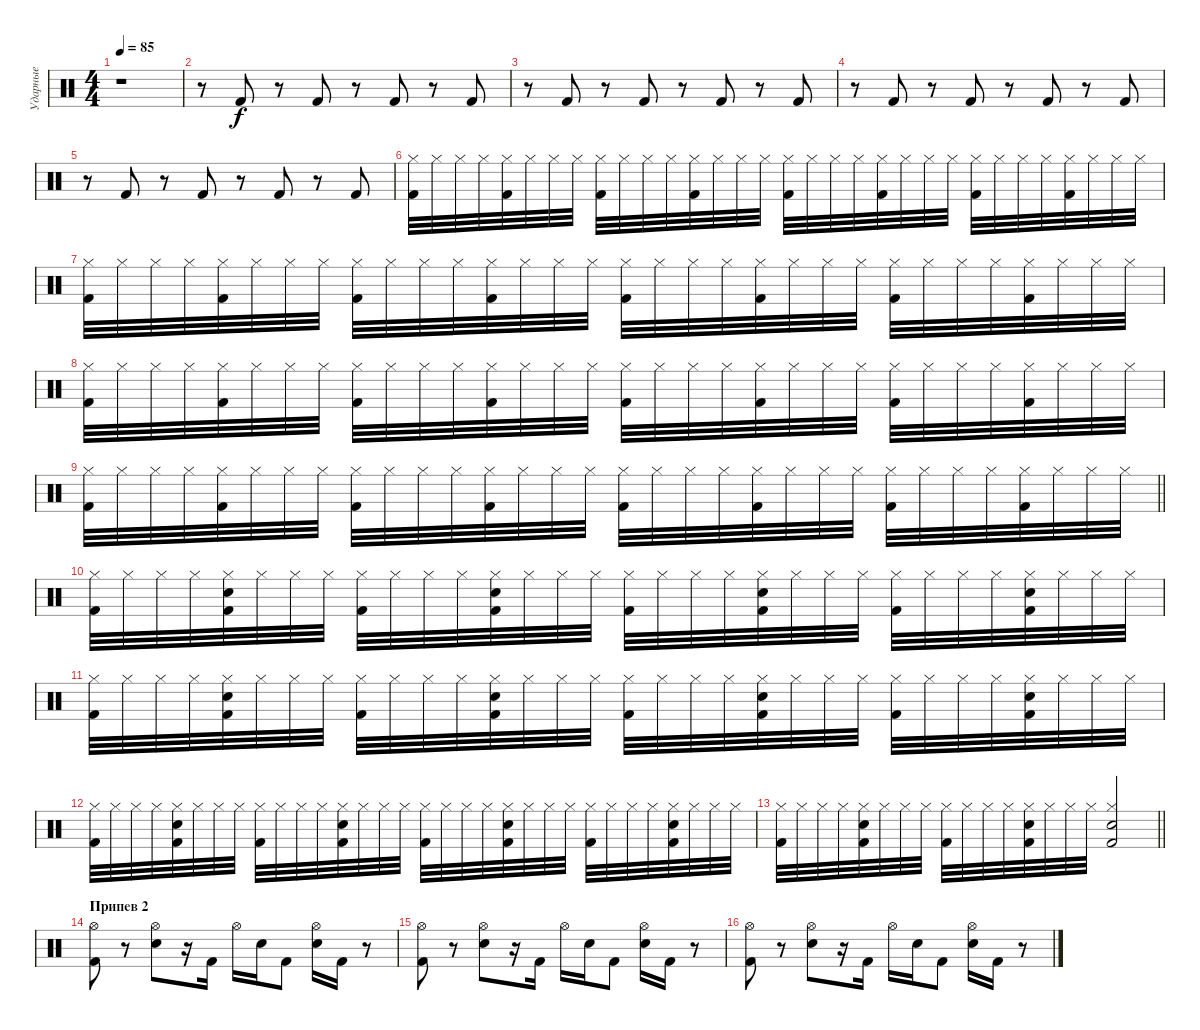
\track ("Ударные" "Ударные") {instrument percussion}
\staff {score}
\articulation defaults
\ts (4 4)
\tempo 85
\clef neutral
\ks c
r.1{dy f} |
r.8 "Kick (hit) 2".8 r.8 "Kick (hit) 2".8 r.8 "Kick (hit) 2".8 r.8 "Kick (hit) 2".8 |
r.8 "Kick (hit) 2".8 r.8 "Kick (hit) 2".8 r.8 "Kick (hit) 2".8 r.8 "Kick (hit) 2".8 |
r.8 "Kick (hit) 2".8 r.8 "Kick (hit) 2".8 r.8 "Kick (hit) 2".8 r.8 "Kick (hit) 2".8 |
r.8 "Kick (hit) 2".8 r.8 "Kick (hit) 2".8 r.8 "Kick (hit) 2".8 r.8 "Kick (hit) 2".8 |
("Hi-Hat (closed)" "Kick (hit) 2").32 "Hi-Hat (closed)".32 "Hi-Hat (closed)".32 "Hi-Hat (closed)".32 ("Hi-Hat (closed)" "Kick (hit) 2").32 "Hi-Hat (closed)".32 "Hi-Hat (closed)".32 "Hi-Hat (closed)".32 ("Hi-Hat (closed)" "Kick (hit) 2").32 "Hi-Hat (closed)".32 "Hi-Hat (closed)".32 "Hi-Hat (closed)".32 ("Hi-Hat (closed)" "Kick (hit) 2").32 "Hi-Hat (closed)".32 "Hi-Hat (closed)".32 "Hi-Hat (closed)".32 ("Hi-Hat (closed)" "Kick (hit) 2").32 "Hi-Hat (closed)".32 "Hi-Hat (closed)".32 "Hi-Hat (closed)".32 ("Hi-Hat (closed)" "Kick (hit) 2").32 "Hi-Hat (closed)".32 "Hi-Hat (closed)".32 "Hi-Hat (closed)".32 ("Hi-Hat (closed)" "Kick (hit) 2").32 "Hi-Hat (closed)".32 "Hi-Hat (closed)".32 "Hi-Hat (closed)".32 ("Hi-Hat (closed)" "Kick (hit) 2").32 "Hi-Hat (closed)".32 "Hi-Hat (closed)".32 "Hi-Hat (closed)".32 |
("Hi-Hat (closed)" "Kick (hit) 2").32 "Hi-Hat (closed)".32 "Hi-Hat (closed)".32 "Hi-Hat (closed)".32 ("Hi-Hat (closed)" "Kick (hit) 2").32 "Hi-Hat (closed)".32 "Hi-Hat (closed)".32 "Hi-Hat (closed)".32 ("Hi-Hat (closed)" "Kick (hit) 2").32 "Hi-Hat (closed)".32 "Hi-Hat (closed)".32 "Hi-Hat (closed)".32 ("Hi-Hat (closed)" "Kick (hit) 2").32 "Hi-Hat (closed)".32 "Hi-Hat (closed)".32 "Hi-Hat (closed)".32 ("Hi-Hat (closed)" "Kick (hit) 2").32 "Hi-Hat (closed)".32 "Hi-Hat (closed)".32 "Hi-Hat (closed)".32 ("Hi-Hat (closed)" "Kick (hit) 2").32 "Hi-Hat (closed)".32 "Hi-Hat (closed)".32 "Hi-Hat (closed)".32 ("Hi-Hat (closed)" "Kick (hit) 2").32 "Hi-Hat (closed)".32 "Hi-Hat (closed)".32 "Hi-Hat (closed)".32 ("Hi-Hat (closed)" "Kick (hit) 2").32 "Hi-Hat (closed)".32 "Hi-Hat (closed)".32 "Hi-Hat (closed)".32 |
("Hi-Hat (closed)" "Kick (hit) 2").32 "Hi-Hat (closed)".32 "Hi-Hat (closed)".32 "Hi-Hat (closed)".32 ("Hi-Hat (closed)" "Kick (hit) 2").32 "Hi-Hat (closed)".32 "Hi-Hat (closed)".32 "Hi-Hat (closed)".32 ("Hi-Hat (closed)" "Kick (hit) 2").32 "Hi-Hat (closed)".32 "Hi-Hat (closed)".32 "Hi-Hat (closed)".32 ("Hi-Hat (closed)" "Kick (hit) 2").32 "Hi-Hat (closed)".32 "Hi-Hat (closed)".32 "Hi-Hat (closed)".32 ("Hi-Hat (closed)" "Kick (hit) 2").32 "Hi-Hat (closed)".32 "Hi-Hat (closed)".32 "Hi-Hat (closed)".32 ("Hi-Hat (closed)" "Kick (hit) 2").32 "Hi-Hat (closed)".32 "Hi-Hat (closed)".32 "Hi-Hat (closed)".32 ("Hi-Hat (closed)" "Kick (hit) 2").32 "Hi-Hat (closed)".32 "Hi-Hat (closed)".32 "Hi-Hat (closed)".32 ("Hi-Hat (closed)" "Kick (hit) 2").32 "Hi-Hat (closed)".32 "Hi-Hat (closed)".32 "Hi-Hat (closed)".32 |
\barLineRight lightlight
("Hi-Hat (closed)" "Kick (hit) 2").32 "Hi-Hat (closed)".32 "Hi-Hat (closed)".32 "Hi-Hat (closed)".32 ("Hi-Hat (closed)" "Kick (hit) 2").32 "Hi-Hat (closed)".32 "Hi-Hat (closed)".32 "Hi-Hat (closed)".32 ("Hi-Hat (closed)" "Kick (hit) 2").32 "Hi-Hat (closed)".32 "Hi-Hat (closed)".32 "Hi-Hat (closed)".32 ("Hi-Hat (closed)" "Kick (hit) 2").32 "Hi-Hat (closed)".32 "Hi-Hat (closed)".32 "Hi-Hat (closed)".32 ("Hi-Hat (closed)" "Kick (hit) 2").32 "Hi-Hat (closed)".32 "Hi-Hat (closed)".32 "Hi-Hat (closed)".32 ("Hi-Hat (closed)" "Kick (hit) 2").32 "Hi-Hat (closed)".32 "Hi-Hat (closed)".32 "Hi-Hat (closed)".32 ("Hi-Hat (closed)" "Kick (hit) 2").32 "Hi-Hat (closed)".32 "Hi-Hat (closed)".32 "Hi-Hat (closed)".32 ("Hi-Hat (closed)" "Kick (hit) 2").32 "Hi-Hat (closed)".32 "Hi-Hat (closed)".32 "Hi-Hat (closed)".32 |
("Hi-Hat (closed)" "Kick (hit) 2").32 "Hi-Hat (closed)".32 "Hi-Hat (closed)".32 "Hi-Hat (closed)".32 ("Hi-Hat (closed)" "Kick (hit) 2" "Electric Snare (hit)").32 "Hi-Hat (closed)".32 "Hi-Hat (closed)".32 "Hi-Hat (closed)".32 ("Hi-Hat (closed)" "Kick (hit) 2").32 "Hi-Hat (closed)".32 "Hi-Hat (closed)".32 "Hi-Hat (closed)".32 ("Hi-Hat (closed)" "Kick (hit) 2" "Electric Snare (hit)").32 "Hi-Hat (closed)".32 "Hi-Hat (closed)".32 "Hi-Hat (closed)".32 ("Hi-Hat (closed)" "Kick (hit) 2").32 "Hi-Hat (closed)".32 "Hi-Hat (closed)".32 "Hi-Hat (closed)".32 ("Hi-Hat (closed)" "Kick (hit) 2" "Electric Snare (hit)").32 "Hi-Hat (closed)".32 "Hi-Hat (closed)".32 "Hi-Hat (closed)".32 ("Hi-Hat (closed)" "Kick (hit) 2").32 "Hi-Hat (closed)".32 "Hi-Hat (closed)".32 "Hi-Hat (closed)".32 ("Hi-Hat (closed)" "Kick (hit) 2" "Electric Snare (hit)").32 "Hi-Hat (closed)".32 "Hi-Hat (closed)".32 "Hi-Hat (closed)".32 |
("Hi-Hat (closed)" "Kick (hit) 2").32 "Hi-Hat (closed)".32 "Hi-Hat (closed)".32 "Hi-Hat (closed)".32 ("Hi-Hat (closed)" "Kick (hit) 2" "Electric Snare (hit)").32 "Hi-Hat (closed)".32 "Hi-Hat (closed)".32 "Hi-Hat (closed)".32 ("Hi-Hat (closed)" "Kick (hit) 2").32 "Hi-Hat (closed)".32 "Hi-Hat (closed)".32 "Hi-Hat (closed)".32 ("Hi-Hat (closed)" "Kick (hit) 2" "Electric Snare (hit)").32 "Hi-Hat (closed)".32 "Hi-Hat (closed)".32 "Hi-Hat (closed)".32 ("Hi-Hat (closed)" "Kick (hit) 2").32 "Hi-Hat (closed)".32 "Hi-Hat (closed)".32 "Hi-Hat (closed)".32 ("Hi-Hat (closed)" "Kick (hit) 2" "Electric Snare (hit)").32 "Hi-Hat (closed)".32 "Hi-Hat (closed)".32 "Hi-Hat (closed)".32 ("Hi-Hat (closed)" "Kick (hit) 2").32 "Hi-Hat (closed)".32 "Hi-Hat (closed)".32 "Hi-Hat (closed)".32 ("Hi-Hat (closed)" "Kick (hit) 2" "Electric Snare (hit)").32 "Hi-Hat (closed)".32 "Hi-Hat (closed)".32 "Hi-Hat (closed)".32 |
("Hi-Hat (closed)" "Kick (hit) 2").32 "Hi-Hat (closed)".32 "Hi-Hat (closed)".32 "Hi-Hat (closed)".32 ("Hi-Hat (closed)" "Kick (hit) 2" "Electric Snare (hit)").32 "Hi-Hat (closed)".32 "Hi-Hat (closed)".32 "Hi-Hat (closed)".32 ("Hi-Hat (closed)" "Kick (hit) 2").32 "Hi-Hat (closed)".32 "Hi-Hat (closed)".32 "Hi-Hat (closed)".32 ("Hi-Hat (closed)" "Kick (hit) 2" "Electric Snare (hit)").32 "Hi-Hat (closed)".32 "Hi-Hat (closed)".32 "Hi-Hat (closed)".32 ("Hi-Hat (closed)" "Kick (hit) 2").32 "Hi-Hat (closed)".32 "Hi-Hat (closed)".32 "Hi-Hat (closed)".32 ("Hi-Hat (closed)" "Kick (hit) 2" "Electric Snare (hit)").32 "Hi-Hat (closed)".32 "Hi-Hat (closed)".32 "Hi-Hat (closed)".32 ("Hi-Hat (closed)" "Kick (hit) 2").32 "Hi-Hat (closed)".32 "Hi-Hat (closed)".32 "Hi-Hat (closed)".32 ("Hi-Hat (closed)" "Kick (hit) 2" "Electric Snare (hit)").32 "Hi-Hat (closed)".32 "Hi-Hat (closed)".32 "Hi-Hat (closed)".32 |
\barLineRight lightlight
("Hi-Hat (closed)" "Kick (hit) 2").32 "Hi-Hat (closed)".32 "Hi-Hat (closed)".32 "Hi-Hat (closed)".32 ("Hi-Hat (closed)" "Kick (hit) 2" "Electric Snare (hit)").32 "Hi-Hat (closed)".32 "Hi-Hat (closed)".32 "Hi-Hat (closed)".32 ("Hi-Hat (closed)" "Kick (hit) 2").32 "Hi-Hat (closed)".32 "Hi-Hat (closed)".32 "Hi-Hat (closed)".32 ("Hi-Hat (closed)" "Kick (hit) 2" "Electric Snare (hit)").32 "Hi-Hat (closed)".32 "Hi-Hat (closed)".32 "Hi-Hat (closed)".32 ("Hi-Hat (closed)" "Kick (hit) 2" "Electric Snare (hit)").2 |
\section ("" "Припев 2")
("Hi-Hat (open)" "Kick (hit) 2").8 r.8 ("Hi-Hat (open)" "Electric Snare (hit)").8 r.16 "Kick (hit) 2".16 "Hi-Hat (open)".16 "Electric Snare (hit)".16 "Kick (hit) 2".8 ("Hi-Hat (open)" "Electric Snare (hit)").16 "Kick (hit) 2".16 r.8 |
("Hi-Hat (open)" "Kick (hit) 2").8 r.8 ("Hi-Hat (open)" "Electric Snare (hit)").8 r.16 "Kick (hit) 2".16 "Hi-Hat (open)".16 "Electric Snare (hit)".16 "Kick (hit) 2".8 ("Hi-Hat (open)" "Electric Snare (hit)").16 "Kick (hit) 2".16 r.8 |
("Hi-Hat (open)" "Kick (hit) 2").8 r.8 ("Hi-Hat (open)" "Electric Snare (hit)").8 r.16 "Kick (hit) 2".16 "Hi-Hat (open)".16 "Electric Snare (hit)".16 "Kick (hit) 2".8 ("Hi-Hat (open)" "Electric Snare (hit)").16 "Kick (hit) 2".16 r.8
